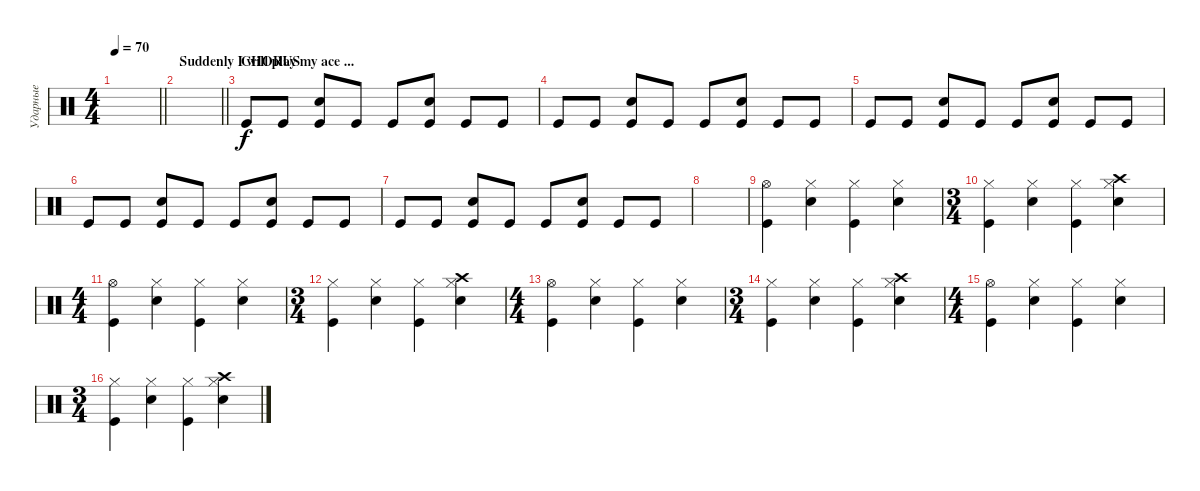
\track ("Ударные" "Ударные") {instrument percussion}
\staff {score}
\articulation defaults
\ts (4 4)
\tempo 70
\clef neutral
\barLineRight lightlight
\ks c
|
\section ("" "Suddenly I will play my ace ...")
\barLineRight lightlight
|
\section ("" "CHORUS")
"Kick (hit)".8 "Kick (hit)".8 ("Kick (hit)" "Snare (hit) 2").8 "Kick (hit)".8 "Kick (hit)".8 ("Kick (hit)" "Snare (hit) 2").8 "Kick (hit)".8 "Kick (hit)".8 |
"Kick (hit)".8 "Kick (hit)".8 ("Kick (hit)" "Snare (hit) 2").8 "Kick (hit)".8 "Kick (hit)".8 ("Kick (hit)" "Snare (hit) 2").8 "Kick (hit)".8 "Kick (hit)".8 |
"Kick (hit)".8 "Kick (hit)".8 ("Kick (hit)" "Snare (hit) 2").8 "Kick (hit)".8 "Kick (hit)".8 ("Kick (hit)" "Snare (hit) 2").8 "Kick (hit)".8 "Kick (hit)".8 |
"Kick (hit)".8 "Kick (hit)".8 ("Kick (hit)" "Snare (hit) 2").8 "Kick (hit)".8 "Kick (hit)".8 ("Kick (hit)" "Snare (hit) 2").8 "Kick (hit)".8 "Kick (hit)".8 |
"Kick (hit)".8 "Kick (hit)".8 ("Kick (hit)" "Snare (hit) 2").8 "Kick (hit)".8 "Kick (hit)".8 ("Kick (hit)" "Snare (hit) 2").8 "Kick (hit)".8 "Kick (hit)".8 |
|
("Kick (hit)" "Hi-Hat (open)").4 ("Snare (hit) 2" "Hi-Hat (closed)").4 ("Kick (hit)" "Hi-Hat (closed)").4 ("Snare (hit) 2" "Hi-Hat (closed)").4 |
\ts (3 4)
("Kick (hit)" "Hi-Hat (closed)").4 ("Snare (hit) 2" "Hi-Hat (closed)").4 ("Kick (hit)" "Hi-Hat (closed)").4 ("Crash high (hit)" "Snare (hit) 2" "Hi-Hat (closed)").4 |
\ts (4 4)
("Kick (hit)" "Hi-Hat (open)").4 ("Snare (hit) 2" "Hi-Hat (closed)").4 ("Kick (hit)" "Hi-Hat (closed)").4 ("Snare (hit) 2" "Hi-Hat (closed)").4 |
\ts (3 4)
("Kick (hit)" "Hi-Hat (closed)").4 ("Snare (hit) 2" "Hi-Hat (closed)").4 ("Kick (hit)" "Hi-Hat (closed)").4 ("Crash high (hit)" "Snare (hit) 2" "Hi-Hat (closed)").4 |
\ts (4 4)
("Kick (hit)" "Hi-Hat (open)").4 ("Snare (hit) 2" "Hi-Hat (closed)").4 ("Kick (hit)" "Hi-Hat (closed)").4 ("Snare (hit) 2" "Hi-Hat (closed)").4 |
\ts (3 4)
("Kick (hit)" "Hi-Hat (closed)").4 ("Snare (hit) 2" "Hi-Hat (closed)").4 ("Kick (hit)" "Hi-Hat (closed)").4 ("Crash high (hit)" "Snare (hit) 2" "Hi-Hat (closed)").4 |
\ts (4 4)
("Kick (hit)" "Hi-Hat (open)").4 ("Snare (hit) 2" "Hi-Hat (closed)").4 ("Kick (hit)" "Hi-Hat (closed)").4 ("Snare (hit) 2" "Hi-Hat (closed)").4 |
\ts (3 4)
("Kick (hit)" "Hi-Hat (closed)").4 ("Snare (hit) 2" "Hi-Hat (closed)").4 ("Kick (hit)" "Hi-Hat (closed)").4 ("Crash high (hit)" "Snare (hit) 2" "Hi-Hat (closed)").4
